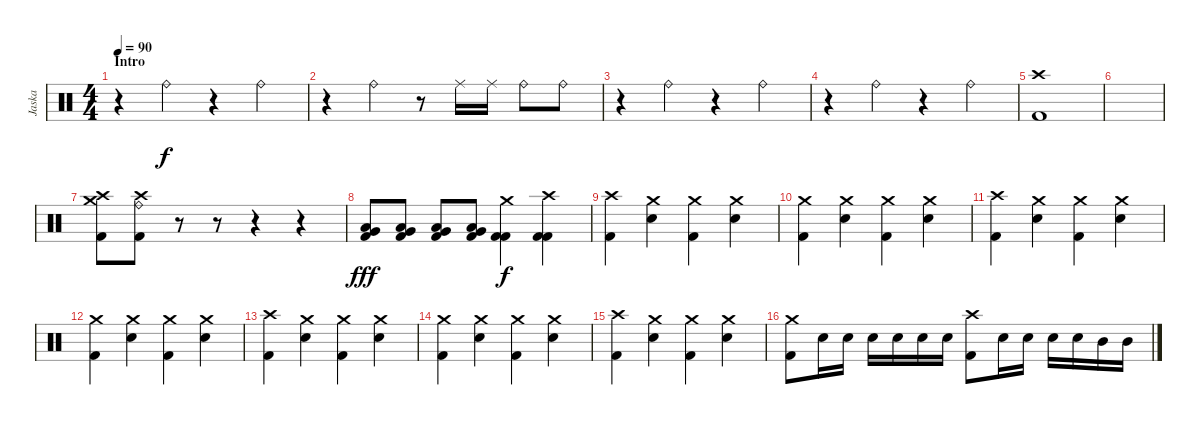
\track ("Jaska" "Jaska") {instrument percussion}
\staff {score}
\articulation defaults
\ts (4 4)
\section ("" "Intro")
\tempo 90
\clef neutral
\ks c
r.4{dy f} "Ride (bell)".4 r.4 "Ride (bell)".4 |
r.4 "Ride (bell)".4 r.8 "Ride (middle)".16 "Ride (middle)".16 "Ride (bell)".8 "Ride (bell)".8 |
r.4 "Ride (bell)".4 r.4 "Ride (bell)".4 |
r.4 "Ride (bell)".4 r.4 "Ride (bell)".4 |
("Crash high (hit)" "Kick (hit) 2").1 |
|
("Crash high (hit)" "Crash medium (hit)" "Kick (hit) 2").8 ("Crash high (hit)" "Ride (bell)" "Kick (hit) 2").8 r.8{volume 0} r.8 r.4 r.4 |
("Very Low Tom (hit)" "Low Floor Tom (hit)" "Kick (hit) 2").8{dy fff volume 16} ("Very Low Tom (hit)" "Low Floor Tom (hit)" "Kick (hit) 2").8 ("Very Low Tom (hit)" "Low Floor Tom (hit)" "Kick (hit) 2").8 ("Very Low Tom (hit)" "Low Floor Tom (hit)" "Kick (hit) 2").8 ("Crash medium (hit)" "Kick (hit) 2" "Kick (hit) 2").4{dy f} ("Crash high (hit)" "Kick (hit) 2" "Kick (hit) 2").4 |
("Crash high (hit)" "Kick (hit) 2").4 ("Crash medium (hit)" "Snare (hit) 2").4 ("Crash medium (hit)" "Kick (hit) 2").4 ("Crash medium (hit)" "Snare (hit) 2").4 |
("Crash medium (hit)" "Kick (hit) 2").4 ("Crash medium (hit)" "Snare (hit) 2").4 ("Crash medium (hit)" "Kick (hit) 2").4 ("Crash medium (hit)" "Snare (hit) 2").4 |
("Crash high (hit)" "Kick (hit) 2").4 ("Crash medium (hit)" "Snare (hit) 2").4 ("Crash medium (hit)" "Kick (hit) 2").4 ("Crash medium (hit)" "Snare (hit) 2").4 |
("Crash medium (hit)" "Kick (hit) 2").4 ("Crash medium (hit)" "Snare (hit) 2").4 ("Crash medium (hit)" "Kick (hit) 2").4 ("Crash medium (hit)" "Snare (hit) 2").4 |
("Crash high (hit)" "Kick (hit) 2").4 ("Crash medium (hit)" "Snare (hit) 2").4 ("Crash medium (hit)" "Kick (hit) 2").4 ("Crash medium (hit)" "Snare (hit) 2").4 |
("Crash medium (hit)" "Kick (hit) 2").4 ("Crash medium (hit)" "Snare (hit) 2").4 ("Crash medium (hit)" "Kick (hit) 2").4 ("Crash medium (hit)" "Snare (hit) 2").4 |
("Crash high (hit)" "Kick (hit) 2").4 ("Crash medium (hit)" "Snare (hit) 2").4 ("Crash medium (hit)" "Kick (hit) 2").4 ("Crash medium (hit)" "Snare (hit) 2").4 |
("Crash medium (hit)" "Kick (hit) 2").8 "Snare (hit) 2".16 "Snare (hit) 2".16 "Snare (hit) 2".16 "Snare (hit) 2".16 "Snare (hit) 2".16 "Snare (hit) 2".16 ("Crash high (hit)" "Kick (hit) 2").8 "Snare (hit) 2".16 "Snare (hit) 2".16 "Snare (hit) 2".16 "Snare (hit) 2".16 "Mid Tom (hit)".16 "Mid Tom (hit)".16
